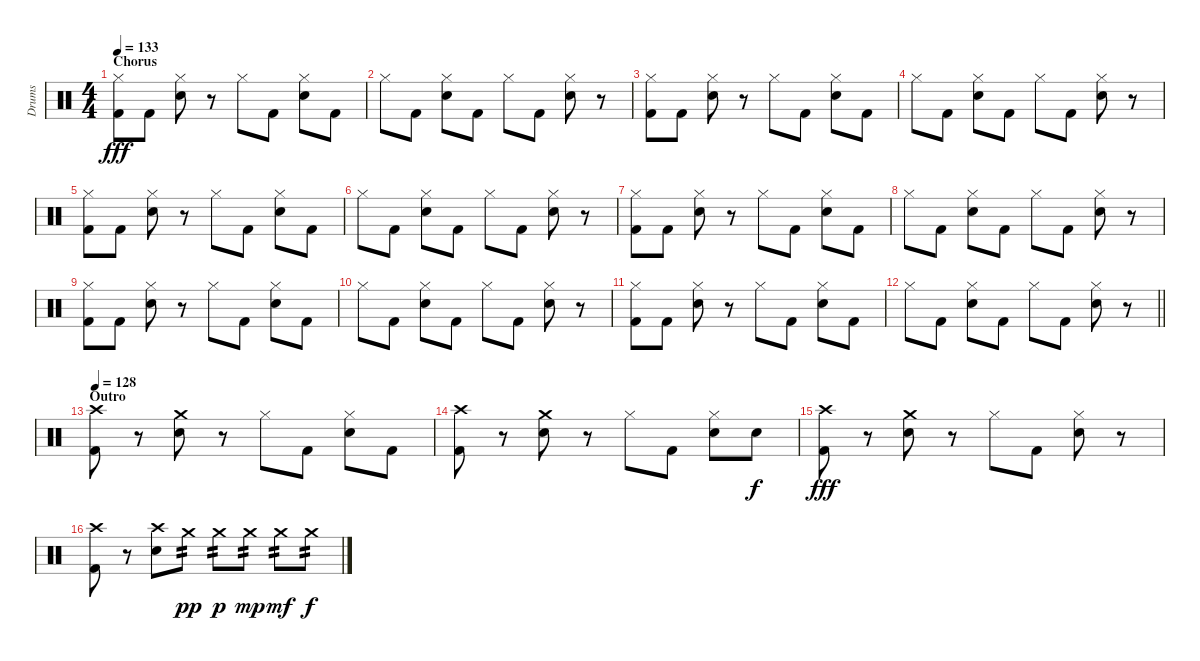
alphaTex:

\track ("Drums" "Drums") {instrument percussion}
\staff {score}
\articulation defaults
\ts (4 4)
\section ("" "Chorus")
\tempo 133
\clef neutral
\ks c
("Hi-Hat (closed)" "Kick (hit) 2").8{dy fff} "Kick (hit) 2".8 ("Hi-Hat (closed)" "Snare (hit) 2").8 r.8 "Hi-Hat (closed)".8 "Kick (hit) 2".8 ("Hi-Hat (closed)" "Snare (hit) 2").8 "Kick (hit) 2".8 |
"Hi-Hat (closed)".8 "Kick (hit) 2".8 ("Hi-Hat (closed)" "Snare (hit) 2").8 "Kick (hit) 2".8 "Hi-Hat (closed)".8 "Kick (hit) 2".8 ("Hi-Hat (closed)" "Snare (hit) 2").8 r.8 |
("Hi-Hat (closed)" "Kick (hit) 2").8 "Kick (hit) 2".8 ("Hi-Hat (closed)" "Snare (hit) 2").8 r.8 "Hi-Hat (closed)".8 "Kick (hit) 2".8 ("Hi-Hat (closed)" "Snare (hit) 2").8 "Kick (hit) 2".8 |
"Hi-Hat (closed)".8 "Kick (hit) 2".8 ("Hi-Hat (closed)" "Snare (hit) 2").8 "Kick (hit) 2".8 "Hi-Hat (closed)".8 "Kick (hit) 2".8 ("Hi-Hat (closed)" "Snare (hit) 2").8 r.8 |
("Hi-Hat (closed)" "Kick (hit) 2").8 "Kick (hit) 2".8 ("Hi-Hat (closed)" "Snare (hit) 2").8 r.8 "Hi-Hat (closed)".8 "Kick (hit) 2".8 ("Hi-Hat (closed)" "Snare (hit) 2").8 "Kick (hit) 2".8 |
"Hi-Hat (closed)".8 "Kick (hit) 2".8 ("Hi-Hat (closed)" "Snare (hit) 2").8 "Kick (hit) 2".8 "Hi-Hat (closed)".8 "Kick (hit) 2".8 ("Hi-Hat (closed)" "Snare (hit) 2").8 r.8 |
("Hi-Hat (closed)" "Kick (hit) 2").8 "Kick (hit) 2".8 ("Hi-Hat (closed)" "Snare (hit) 2").8 r.8 "Hi-Hat (closed)".8 "Kick (hit) 2".8 ("Hi-Hat (closed)" "Snare (hit) 2").8 "Kick (hit) 2".8 |
"Hi-Hat (closed)".8 "Kick (hit) 2".8 ("Hi-Hat (closed)" "Snare (hit) 2").8 "Kick (hit) 2".8 "Hi-Hat (closed)".8 "Kick (hit) 2".8 ("Hi-Hat (closed)" "Snare (hit) 2").8 r.8 |
("Hi-Hat (closed)" "Kick (hit) 2").8 "Kick (hit) 2".8 ("Hi-Hat (closed)" "Snare (hit) 2").8 r.8 "Hi-Hat (closed)".8 "Kick (hit) 2".8 ("Hi-Hat (closed)" "Snare (hit) 2").8 "Kick (hit) 2".8 |
"Hi-Hat (closed)".8 "Kick (hit) 2".8 ("Hi-Hat (closed)" "Snare (hit) 2").8 "Kick (hit) 2".8 "Hi-Hat (closed)".8 "Kick (hit) 2".8 ("Hi-Hat (closed)" "Snare (hit) 2").8 r.8 |
("Hi-Hat (closed)" "Kick (hit) 2").8 "Kick (hit) 2".8 ("Hi-Hat (closed)" "Snare (hit) 2").8 r.8 "Hi-Hat (closed)".8 "Kick (hit) 2".8 ("Hi-Hat (closed)" "Snare (hit) 2").8 "Kick (hit) 2".8 |
\barLineRight lightlight "Hi-Hat (closed)".8 "Kick (hit) 2".8
("Hi-Hat (closed)" "Snare (hit) 2").8 "Kick (hit) 2".8 "Hi-Hat (closed)".8 "Kick (hit) 2".8 ("Hi-Hat (closed)" "Snare (hit) 2").8 r.8 |
\section ("" "Outro")
\tempo 128
("Crash high (hit)" "Kick (hit) 2").8 r.8 ("Crash medium (hit)" "Snare (hit) 2").8 r.8 "Hi-Hat (closed)".8 "Kick (hit) 2".8 ("Hi-Hat (closed)" "Snare (hit) 2").8 "Kick (hit) 2".8 |
("Crash high (hit)" "Kick (hit) 2").8 r.8 ("Crash medium (hit)" "Snare (hit) 2").8 r.8 "Hi-Hat (closed)".8 "Kick (hit) 2".8 ("Hi-Hat (closed)" "Snare (hit) 2").8 "Snare (hit) 2".8{dy f} |
("Crash high (hit)" "Kick (hit) 2").8{dy fff} r.8 ("Crash medium (hit)" "Snare (hit) 2").8 r.8 "Hi-Hat (closed)".8 "Kick (hit) 2".8 ("Hi-Hat (closed)" "Snare (hit) 2").8 r.8 |
("Crash high (hit)" "Kick (hit) 2").8 r.8 ("Crash high (hit)" "Snare (hit) 2").8 "Crash medium (hit)".8{tp 2 dy pp} "Crash medium (hit)".8{tp 2 dy p} "Crash medium (hit)".8{tp 2 dy mp} "Crash medium (hit)".8{tp 2 dy mf} "Crash medium (hit)".8{tp 2 dy f}
